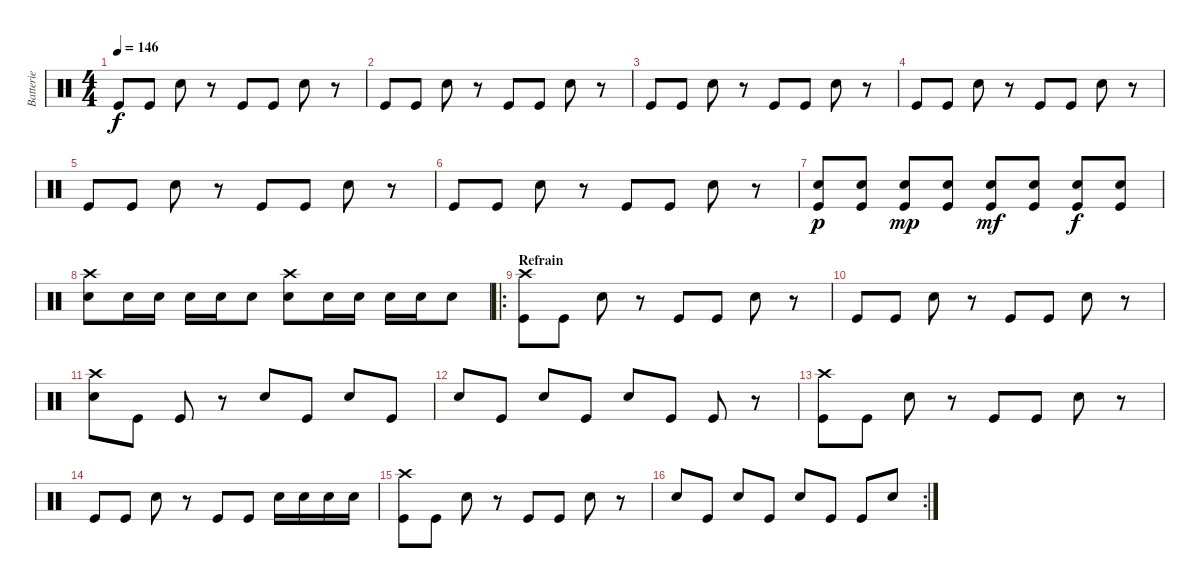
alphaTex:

\track ("Batterie" "Batterie") {instrument percussion}
\staff {score}
\articulation defaults
\ts (4 4)
\tempo 146
\clef neutral
\ks c "Kick (hit)".8{dy f} "Kick (hit)".8 "Snare (hit) 2".8
r.8 "Kick (hit)".8 "Kick (hit)".8 "Snare (hit) 2".8 r.8 |
"Kick (hit)".8 "Kick (hit)".8 "Snare (hit) 2".8 r.8 "Kick (hit)".8 "Kick (hit)".8 "Snare (hit) 2".8 r.8 |
"Kick (hit)".8 "Kick (hit)".8 "Snare (hit) 2".8 r.8 "Kick (hit)".8 "Kick (hit)".8 "Snare (hit) 2".8 r.8 |
"Kick (hit)".8 "Kick (hit)".8 "Snare (hit) 2".8 r.8 "Kick (hit)".8 "Kick (hit)".8 "Snare (hit) 2".8 r.8 |
"Kick (hit)".8 "Kick (hit)".8 "Snare (hit) 2".8 r.8 "Kick (hit)".8 "Kick (hit)".8 "Snare (hit) 2".8 r.8 |
"Kick (hit)".8 "Kick (hit)".8 "Snare (hit) 2".8 r.8 "Kick (hit)".8 "Kick (hit)".8 "Snare (hit) 2".8 r.8 |
("Snare (hit) 2" "Kick (hit)").8{dy p} ("Snare (hit) 2" "Kick (hit)").8 ("Snare (hit) 2" "Kick (hit)").8{dy mp} ("Snare (hit) 2" "Kick (hit)").8 ("Snare (hit) 2" "Kick (hit)").8{dy mf} ("Snare (hit) 2" "Kick (hit)").8 ("Snare (hit) 2" "Kick (hit)").8{dy f} ("Snare (hit) 2" "Kick (hit)").8 |
("Crash high (hit)" "Snare (hit) 2").8 "Electric Snare (hit)".16 "Electric Snare (hit)".16 "Electric Snare (hit)".16 "Electric Snare (hit)".16 "Electric Snare (hit)".8 ("Crash high (hit)" "Snare (hit) 2").8 "Electric Snare (hit)".16 "Electric Snare (hit)".16 "Electric Snare (hit)".16 "Electric Snare (hit)".16 "Electric Snare (hit)".8 |
\ro
\section ("" "Refrain")
("Crash high (hit)" "Kick (hit)").8 "Kick (hit)".8 "Snare (hit) 2".8 r.8 "Kick (hit)".8 "Kick (hit)".8 "Snare (hit) 2".8 r.8 |
"Kick (hit)".8 "Kick (hit)".8 "Snare (hit) 2".8 r.8 "Kick (hit)".8 "Kick (hit)".8 "Snare (hit) 2".8 r.8 |
("Crash high (hit)" "Snare (hit) 2").8 "Kick (hit)".8 "Kick (hit)".8 r.8 "Snare (hit) 2".8 "Kick (hit)".8 "Snare (hit) 2".8 "Kick (hit)".8 |
"Snare (hit) 2".8 "Kick (hit)".8 "Snare (hit) 2".8 "Kick (hit)".8 "Snare (hit) 2".8 "Kick (hit)".8 "Kick (hit)".8 r.8 |
("Crash high (hit)" "Kick (hit)").8 "Kick (hit)".8 "Snare (hit) 2".8 r.8 "Kick (hit)".8 "Kick (hit)".8 "Snare (hit) 2".8 r.8 |
"Kick (hit)".8 "Kick (hit)".8 "Snare (hit) 2".8 r.8 "Kick (hit)".8 "Kick (hit)".8 "Snare (hit) 2".16 "Snare (hit) 2".16 "Snare (hit) 2".16 "Snare (hit) 2".16 |
("Crash high (hit)" "Kick (hit)").8 "Kick (hit)".8 "Snare (hit) 2".8 r.8 "Kick (hit)".8 "Kick (hit)".8 "Snare (hit) 2".8 r.8 |
\rc 2 "Snare (hit) 2".8 "Kick (hit)".8 "Snare (hit) 2".8 "Kick (hit)".8 "Snare (hit) 2".8 "Kick (hit)".8 "Kick (hit)".8 "Snare (hit) 2".8
